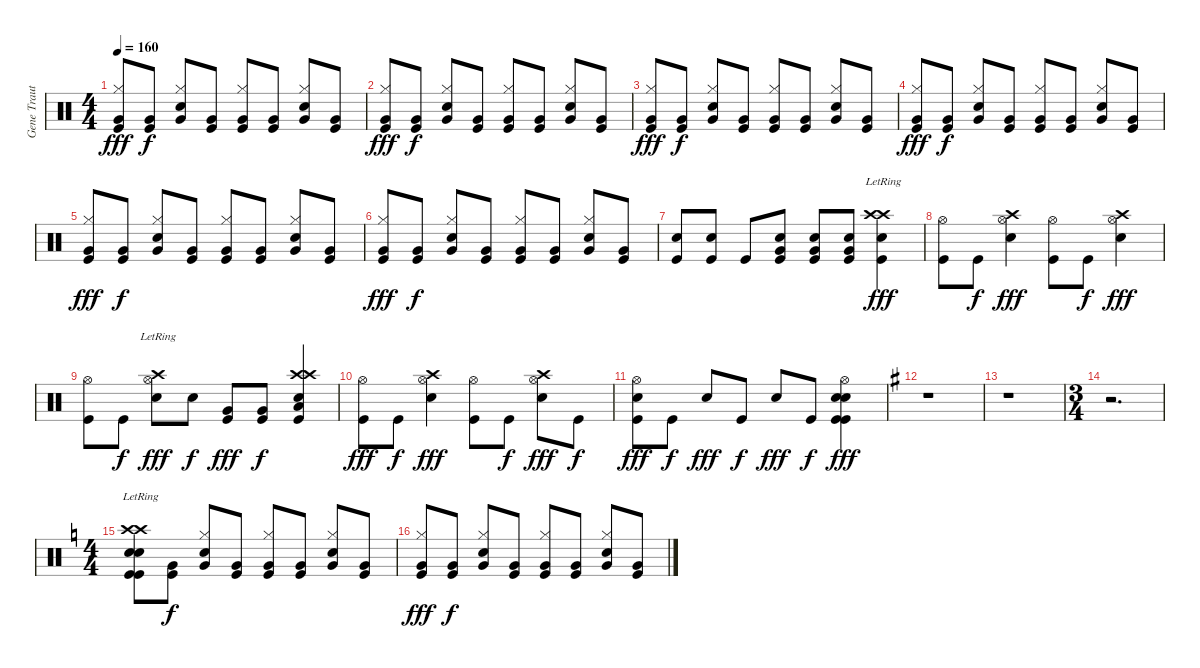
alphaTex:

\track ("Gene Trautmann" "Gene Traut") {instrument percussion}
\staff {score}
\articulation defaults
\ts (4 4)
\tempo 160
\clef neutral
\ks c
("Very Low Tom (hit)" "Hi-Hat (closed)" "Kick (hit)").8{dy fff} ("Very Low Tom (hit)" "Kick (hit)").8{dy f} ("Very Low Tom (hit)" "Hi-Hat (closed)" "Snare (hit) 2").8 ("Very Low Tom (hit)" "Kick (hit)").8 ("Very Low Tom (hit)" "Hi-Hat (closed)" "Kick (hit)").8 ("Very Low Tom (hit)" "Kick (hit)").8 ("Very Low Tom (hit)" "Hi-Hat (closed)" "Snare (hit) 2").8 ("Very Low Tom (hit)" "Kick (hit)").8 |
("Very Low Tom (hit)" "Hi-Hat (closed)" "Kick (hit)").8{dy fff} ("Very Low Tom (hit)" "Kick (hit)").8{dy f} ("Very Low Tom (hit)" "Hi-Hat (closed)" "Snare (hit) 2").8 ("Very Low Tom (hit)" "Kick (hit)").8 ("Very Low Tom (hit)" "Hi-Hat (closed)" "Kick (hit)").8 ("Very Low Tom (hit)" "Kick (hit)").8 ("Very Low Tom (hit)" "Hi-Hat (closed)" "Snare (hit) 2").8 ("Very Low Tom (hit)" "Kick (hit)").8 |
("Very Low Tom (hit)" "Hi-Hat (closed)" "Kick (hit)").8{dy fff} ("Very Low Tom (hit)" "Kick (hit)").8{dy f} ("Very Low Tom (hit)" "Hi-Hat (closed)" "Snare (hit) 2").8 ("Very Low Tom (hit)" "Kick (hit)").8 ("Very Low Tom (hit)" "Hi-Hat (closed)" "Kick (hit)").8 ("Very Low Tom (hit)" "Kick (hit)").8 ("Very Low Tom (hit)" "Hi-Hat (closed)" "Snare (hit) 2").8 ("Very Low Tom (hit)" "Kick (hit)").8 |
("Very Low Tom (hit)" "Hi-Hat (closed)" "Kick (hit)").8{dy fff} ("Very Low Tom (hit)" "Kick (hit)").8{dy f} ("Very Low Tom (hit)" "Hi-Hat (closed)" "Snare (hit) 2").8 ("Very Low Tom (hit)" "Kick (hit)").8 ("Very Low Tom (hit)" "Hi-Hat (closed)" "Kick (hit)").8 ("Very Low Tom (hit)" "Kick (hit)").8 ("Very Low Tom (hit)" "Hi-Hat (closed)" "Snare (hit) 2").8 ("Very Low Tom (hit)" "Kick (hit)").8 |
("Very Low Tom (hit)" "Hi-Hat (closed)" "Kick (hit)").8{dy fff} ("Very Low Tom (hit)" "Kick (hit)").8{dy f} ("Very Low Tom (hit)" "Hi-Hat (closed)" "Snare (hit) 2").8 ("Very Low Tom (hit)" "Kick (hit)").8 ("Very Low Tom (hit)" "Hi-Hat (closed)" "Kick (hit)").8 ("Very Low Tom (hit)" "Kick (hit)").8 ("Very Low Tom (hit)" "Hi-Hat (closed)" "Snare (hit) 2").8 ("Very Low Tom (hit)" "Kick (hit)").8 |
("Very Low Tom (hit)" "Hi-Hat (closed)" "Kick (hit)").8{dy fff} ("Very Low Tom (hit)" "Kick (hit)").8{dy f} ("Very Low Tom (hit)" "Hi-Hat (closed)" "Snare (hit) 2").8 ("Very Low Tom (hit)" "Kick (hit)").8 ("Very Low Tom (hit)" "Hi-Hat (closed)" "Kick (hit)").8 ("Very Low Tom (hit)" "Kick (hit)").8 ("Very Low Tom (hit)" "Hi-Hat (closed)" "Snare (hit) 2").8 ("Very Low Tom (hit)" "Kick (hit)").8 |
("Snare (hit) 2" "Kick (hit)").8 ("Snare (hit) 2" "Kick (hit)").8 "Kick (hit)".8 ("Very Low Tom (hit)" "Snare (hit) 2" "Kick (hit)").8 ("Very Low Tom (hit)" "Snare (hit) 2" "Kick (hit)").8 ("Very Low Tom (hit)" "Snare (hit) 2" "Kick (hit)").8 ("Crash high (hit)"{lr} "Crash high (hit)"{lr} "Snare (hit) 2" "Kick (hit)").4{dy fff} |
("Hi-Hat (open)" "Kick (hit)").8 "Kick (hit)".8{dy f} ("Crash high (hit)" "Hi-Hat (open)" "Snare (hit) 2").4{dy fff} ("Hi-Hat (open)" "Kick (hit)").8 "Kick (hit)".8{dy f} ("Crash high (hit)" "Hi-Hat (open)" "Snare (hit) 2").4{dy fff} |
("Hi-Hat (open)" "Kick (hit)").8 "Kick (hit)".8{dy f} ("Crash high (hit)" "Hi-Hat (open)"{lr} "Snare (hit) 2").8{dy fff} "Snare (hit) 2".8{dy f} ("Very Low Tom (hit)" "Kick (hit)").8{dy fff} ("Very Low Tom (hit)" "Kick (hit)").8{dy f} ("Crash high (hit)" "Crash high (hit)" "Low Tom (hit)" "Snare (hit) 2" "Kick (hit)").4 |
("Hi-Hat (open)" "Kick (hit)").8{dy fff} "Kick (hit)".8{dy f} ("Crash high (hit)" "Hi-Hat (open)" "Snare (hit) 2").4{dy fff} ("Hi-Hat (open)" "Kick (hit)").8 "Kick (hit)".8{dy f} ("Crash high (hit)" "Hi-Hat (open)" "Snare (hit) 2").8{dy fff} "Kick (hit)".8{dy f} |
("Hi-Hat (open)" "Snare (hit) 2" "Kick (hit)").8{dy fff} "Kick (hit)".8{dy f} "Snare (hit) 2".8{dy fff} "Kick (hit)".8{dy f} "Snare (hit) 2".8{dy fff} "Kick (hit)".8{dy f} ("Kick (hit)" "Snare (hit) 2" "Hi-Hat (open)" "Snare (hit) 2" "Kick (hit)").4{dy fff} |
\ks g
r.1 |
r.1 |
\ts (3 4)
r.2{d} |
\ts (4 4)
\ks c
("Kick (hit)" "Crash high (hit)"{lr} "Crash high (hit)"{lr} "Snare (hit) 2" "Snare (hit) 2"{lr} "Kick (hit)").8 ("Very Low Tom (hit)" "Kick (hit)").8{dy f} ("Very Low Tom (hit)" "Hi-Hat (closed)" "Snare (hit) 2").8 ("Very Low Tom (hit)" "Kick (hit)").8 ("Very Low Tom (hit)" "Hi-Hat (closed)" "Kick (hit)").8 ("Very Low Tom (hit)" "Kick (hit)").8 ("Very Low Tom (hit)" "Hi-Hat (closed)" "Snare (hit) 2").8 ("Very Low Tom (hit)" "Kick (hit)").8 |
("Very Low Tom (hit)" "Hi-Hat (closed)" "Kick (hit)").8{dy fff} ("Very Low Tom (hit)" "Kick (hit)").8{dy f} ("Very Low Tom (hit)" "Hi-Hat (closed)" "Snare (hit) 2").8 ("Very Low Tom (hit)" "Kick (hit)").8 ("Very Low Tom (hit)" "Hi-Hat (closed)" "Kick (hit)").8 ("Very Low Tom (hit)" "Kick (hit)").8 ("Very Low Tom (hit)" "Hi-Hat (closed)" "Snare (hit) 2").8 ("Very Low Tom (hit)" "Kick (hit)").8
